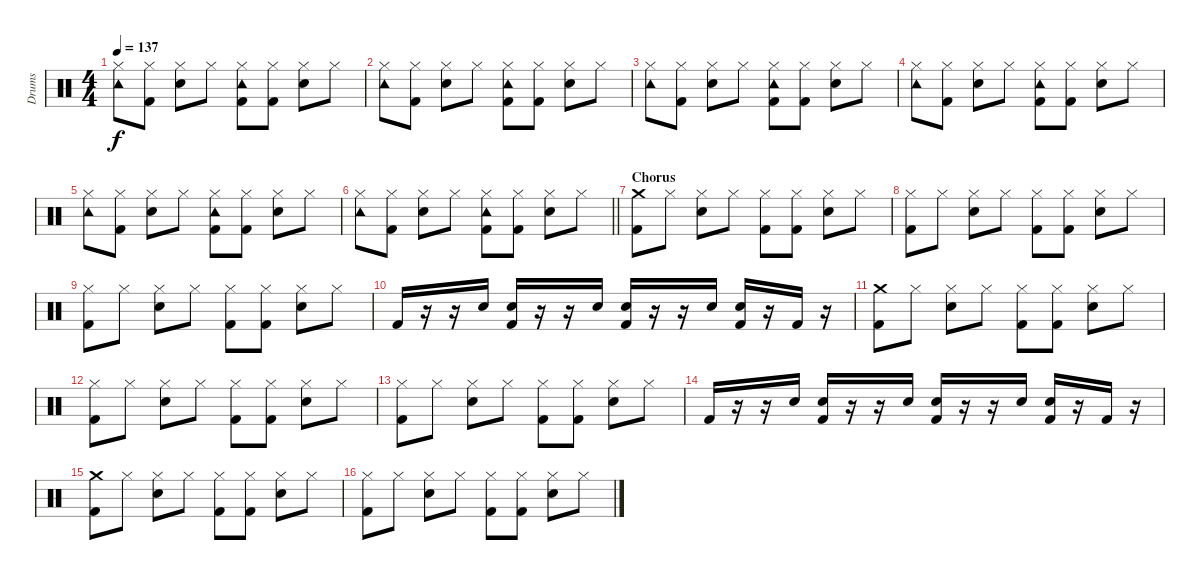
\track ("Drums" "Drums") {instrument percussion}
\staff {score}
\articulation defaults
\ts (4 4)
\tempo 137
\clef neutral
\ks c
("Hi-Hat (closed)" "Tambourine (hit)").8{dy f} ("Hi-Hat (closed)" "Kick (hit) 2").8 ("Hi-Hat (closed)" "Snare (hit) 2").8 "Hi-Hat (closed)".8 ("Hi-Hat (closed)" "Tambourine (hit)" "Kick (hit) 2").8 ("Hi-Hat (closed)" "Kick (hit) 2").8 ("Hi-Hat (closed)" "Snare (hit) 2").8 "Hi-Hat (closed)".8 |
("Hi-Hat (closed)" "Tambourine (hit)").8 ("Hi-Hat (closed)" "Kick (hit) 2").8 ("Hi-Hat (closed)" "Snare (hit) 2").8 "Hi-Hat (closed)".8 ("Hi-Hat (closed)" "Tambourine (hit)" "Kick (hit) 2").8 ("Hi-Hat (closed)" "Kick (hit) 2").8 ("Hi-Hat (closed)" "Snare (hit) 2").8 "Hi-Hat (closed)".8 |
("Hi-Hat (closed)" "Tambourine (hit)").8 ("Hi-Hat (closed)" "Kick (hit) 2").8 ("Hi-Hat (closed)" "Snare (hit) 2").8 "Hi-Hat (closed)".8 ("Hi-Hat (closed)" "Tambourine (hit)" "Kick (hit) 2").8 ("Hi-Hat (closed)" "Kick (hit) 2").8 ("Hi-Hat (closed)" "Snare (hit) 2").8 "Hi-Hat (closed)".8 |
("Hi-Hat (closed)" "Tambourine (hit)").8 ("Hi-Hat (closed)" "Kick (hit) 2").8 ("Hi-Hat (closed)" "Snare (hit) 2").8 "Hi-Hat (closed)".8 ("Hi-Hat (closed)" "Tambourine (hit)" "Kick (hit) 2").8 ("Hi-Hat (closed)" "Kick (hit) 2").8 ("Hi-Hat (closed)" "Snare (hit) 2").8 "Hi-Hat (closed)".8 |
("Hi-Hat (closed)" "Tambourine (hit)").8 ("Hi-Hat (closed)" "Kick (hit) 2").8 ("Hi-Hat (closed)" "Snare (hit) 2").8 "Hi-Hat (closed)".8 ("Hi-Hat (closed)" "Tambourine (hit)" "Kick (hit) 2").8 ("Hi-Hat (closed)" "Kick (hit) 2").8 ("Hi-Hat (closed)" "Snare (hit) 2").8 "Hi-Hat (closed)".8 |
\barLineRight lightlight
("Hi-Hat (closed)" "Tambourine (hit)").8 ("Hi-Hat (closed)" "Kick (hit) 2").8 ("Hi-Hat (closed)" "Snare (hit) 2").8 "Hi-Hat (closed)".8 ("Hi-Hat (closed)" "Tambourine (hit)" "Kick (hit) 2").8 ("Hi-Hat (closed)" "Kick (hit) 2").8 ("Hi-Hat (closed)" "Snare (hit) 2").8 "Hi-Hat (closed)".8 |
\section ("" "Chorus")
("Crash medium (hit)" "Kick (hit) 2").8 "Hi-Hat (closed)".8 ("Hi-Hat (closed)" "Snare (hit) 2").8 "Hi-Hat (closed)".8 ("Hi-Hat (closed)" "Kick (hit) 2").8 ("Hi-Hat (closed)" "Kick (hit) 2").8 ("Hi-Hat (closed)" "Snare (hit) 2").8 "Hi-Hat (closed)".8 |
("Hi-Hat (closed)" "Kick (hit) 2").8 "Hi-Hat (closed)".8 ("Hi-Hat (closed)" "Snare (hit) 2").8 "Hi-Hat (closed)".8 ("Hi-Hat (closed)" "Kick (hit) 2").8 ("Hi-Hat (closed)" "Kick (hit) 2").8 ("Hi-Hat (closed)" "Snare (hit) 2").8 "Hi-Hat (closed)".8 |
("Hi-Hat (closed)" "Kick (hit) 2").8 "Hi-Hat (closed)".8 ("Hi-Hat (closed)" "Snare (hit) 2").8 "Hi-Hat (closed)".8 ("Hi-Hat (closed)" "Kick (hit) 2").8 ("Hi-Hat (closed)" "Kick (hit) 2").8 ("Hi-Hat (closed)" "Snare (hit) 2").8 "Hi-Hat (closed)".8 |
"Kick (hit) 2".16 r.16 r.16 "Snare (hit) 2".16 ("Snare (hit) 2" "Kick (hit) 2").16 r.16 r.16 "Snare (hit) 2".16 ("Snare (hit) 2" "Kick (hit) 2").16 r.16 r.16 "Snare (hit) 2".16 ("Snare (hit) 2" "Kick (hit) 2").16 r.16 "Kick (hit) 2".16 r.16 |
("Crash medium (hit)" "Kick (hit) 2").8 "Hi-Hat (closed)".8 ("Hi-Hat (closed)" "Snare (hit) 2").8 "Hi-Hat (closed)".8 ("Hi-Hat (closed)" "Kick (hit) 2").8 ("Hi-Hat (closed)" "Kick (hit) 2").8 ("Hi-Hat (closed)" "Snare (hit) 2").8 "Hi-Hat (closed)".8 |
("Hi-Hat (closed)" "Kick (hit) 2").8 "Hi-Hat (closed)".8 ("Hi-Hat (closed)" "Snare (hit) 2").8 "Hi-Hat (closed)".8 ("Hi-Hat (closed)" "Kick (hit) 2").8 ("Hi-Hat (closed)" "Kick (hit) 2").8 ("Hi-Hat (closed)" "Snare (hit) 2").8 "Hi-Hat (closed)".8 |
("Hi-Hat (closed)" "Kick (hit) 2").8 "Hi-Hat (closed)".8 ("Hi-Hat (closed)" "Snare (hit) 2").8 "Hi-Hat (closed)".8 ("Hi-Hat (closed)" "Kick (hit) 2").8 ("Hi-Hat (closed)" "Kick (hit) 2").8 ("Hi-Hat (closed)" "Snare (hit) 2").8 "Hi-Hat (closed)".8 |
"Kick (hit) 2".16 r.16 r.16 "Snare (hit) 2".16 ("Snare (hit) 2" "Kick (hit) 2").16 r.16 r.16 "Snare (hit) 2".16 ("Snare (hit) 2" "Kick (hit) 2").16 r.16 r.16 "Snare (hit) 2".16 ("Snare (hit) 2" "Kick (hit) 2").16 r.16 "Kick (hit) 2".16 r.16 |
("Crash medium (hit)" "Kick (hit) 2").8 "Hi-Hat (closed)".8 ("Hi-Hat (closed)" "Snare (hit) 2").8 "Hi-Hat (closed)".8 ("Hi-Hat (closed)" "Kick (hit) 2").8 ("Hi-Hat (closed)" "Kick (hit) 2").8 ("Hi-Hat (closed)" "Snare (hit) 2").8 "Hi-Hat (closed)".8 |
("Hi-Hat (closed)" "Kick (hit) 2").8 "Hi-Hat (closed)".8 ("Hi-Hat (closed)" "Snare (hit) 2").8 "Hi-Hat (closed)".8 ("Hi-Hat (closed)" "Kick (hit) 2").8 ("Hi-Hat (closed)" "Kick (hit) 2").8 ("Hi-Hat (closed)" "Snare (hit) 2").8 "Hi-Hat (closed)".8
